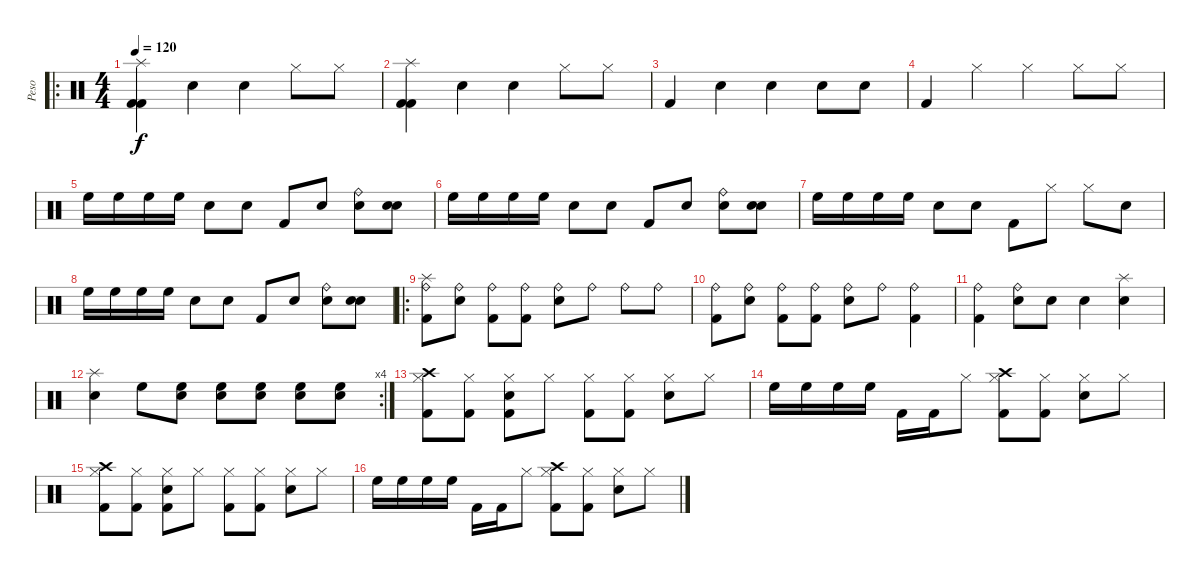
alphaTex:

\track ("Peso" "Peso") {instrument percussion}
\staff {score}
\articulation defaults
\ro
\ts (4 4)
\tempo 120
\clef neutral
\ks c
("Splash (hit)" "Kick (hit) 2" "Kick (hit) 2").4{dy f} "Snare (hit)"{x}.4 "Snare (hit)"{x}.4 "Hi-Hat (closed)".8 "Hi-Hat (closed)".8 |
("Splash (hit)" "Kick (hit) 2" "Kick (hit) 2").4 "Snare (hit)"{x}.4 "Snare (hit)"{x}.4 "Hi-Hat (closed)".8 "Hi-Hat (closed)"{x}.8 |
"Kick (hit) 2"{x}.4 "Snare (hit)"{x}.4 "Snare (hit)"{x}.4 "Snare (hit)"{x}.8 "Snare (hit)"{x}.8 |
"Kick (hit) 2"{x}.4 "Hi-Hat (closed)".4 "Hi-Hat (closed)".4 "Hi-Hat (closed)".8 "Hi-Hat (closed)".8 |
"High Floor Tom (hit)".16 "High Floor Tom (hit)".16 "High Floor Tom (hit)".16 "High Floor Tom (hit)".16 "Snare (hit) 2".8 "Snare (hit) 2".8 "Kick (hit) 2".8 "Snare (hit)"{x}.8 ("Ride (bell)" "Snare (hit)"{x}).8 ("Snare (hit) 2" "Snare (hit)"{x}).8 |
"High Floor Tom (hit)".16 "High Floor Tom (hit)".16 "High Floor Tom (hit)".16 "High Floor Tom (hit)".16 "Snare (hit) 2".8 "Snare (hit) 2".8 "Kick (hit) 2".8 "Snare (hit)"{x}.8 ("Ride (bell)" "Snare (hit)"{x}).8 ("Snare (hit) 2" "Snare (hit)"{x}).8 |
"High Floor Tom (hit)".16 "High Floor Tom (hit)".16 "High Floor Tom (hit)".16 "High Floor Tom (hit)".16 "Snare (hit) 2".8 "Snare (hit) 2".8 "Kick (hit) 2".8 "Hi-Hat (closed)".8 "Hi-Hat (closed)".8 "Snare (hit) 2".8 |
"High Floor Tom (hit)".16 "High Floor Tom (hit)".16 "High Floor Tom (hit)".16 "High Floor Tom (hit)".16 "Snare (hit) 2".8 "Snare (hit) 2".8 "Kick (hit) 2".8 "Snare (hit)"{x}.8 ("Ride (bell)" "Snare (hit)"{x}).8 ("Snare (hit) 2" "Snare (hit)"{x}).8 |
\ro
("Splash (hit)" "Ride (bell)" "Kick (hit) 2").8 ("Ride (bell)" "Snare (hit) 2").8 ("Ride (bell)" "Kick (hit) 2").8 ("Ride (bell)" "Kick (hit) 2").8 ("Ride (bell)" "Snare (hit) 2").8 "Ride (bell)".8 "Ride (bell)".8 "Ride (bell)".8 |
("Ride (bell)" "Kick (hit) 2").8 ("Ride (bell)" "Snare (hit) 2").8 ("Ride (bell)" "Kick (hit) 2").8 ("Ride (bell)" "Kick (hit) 2").8 ("Ride (bell)" "Snare (hit) 2").8 "Ride (bell)".8 ("Ride (bell)" "Kick (hit) 2").4 |
("Ride (bell)" "Kick (hit) 2").4 ("Ride (bell)" "Snare (hit) 2").8 "Snare (hit) 2".8 "Snare (hit) 2".4 ("Splash (hit)" "Snare (hit) 2").4 |
\rc 4
("Splash (hit)" "Snare (hit) 2").4 "High Floor Tom (hit)".8 ("High Floor Tom (hit)" "Snare (hit) 2").8 ("High Floor Tom (hit)" "Snare (hit) 2").8 ("High Floor Tom (hit)" "Snare (hit) 2").8 ("High Floor Tom (hit)" "Snare (hit) 2").8 ("High Floor Tom (hit)" "Snare (hit) 2").8 |
("Crash high (hit)" "Hi-Hat (closed)" "Kick (hit) 2").8 ("Hi-Hat (closed)" "Kick (hit) 2").8 ("Hi-Hat (closed)" "Snare (hit) 2" "Kick (hit) 2").8 "Hi-Hat (closed)".8 ("Hi-Hat (closed)" "Kick (hit) 2").8 ("Hi-Hat (closed)" "Kick (hit) 2").8 ("Hi-Hat (closed)" "Snare (hit) 2").8 "Hi-Hat (closed)".8 |
"High Floor Tom (hit)".16 "High Floor Tom (hit)".16 "High Floor Tom (hit)".16 "High Floor Tom (hit)".16 "Kick (hit) 2".16 "Kick (hit) 2".16 "Hi-Hat (closed)".8 ("Crash high (hit)" "Hi-Hat (closed)" "Kick (hit) 2").8 ("Hi-Hat (closed)" "Kick (hit) 2").8 ("Hi-Hat (closed)" "Snare (hit) 2").8 "Hi-Hat (closed)".8 |
("Crash high (hit)" "Hi-Hat (closed)" "Kick (hit) 2").8 ("Hi-Hat (closed)" "Kick (hit) 2").8 ("Hi-Hat (closed)" "Snare (hit) 2" "Kick (hit) 2").8 "Hi-Hat (closed)".8 ("Hi-Hat (closed)" "Kick (hit) 2").8 ("Hi-Hat (closed)" "Kick (hit) 2").8 ("Hi-Hat (closed)" "Snare (hit) 2").8 "Hi-Hat (closed)".8 |
"High Floor Tom (hit)".16 "High Floor Tom (hit)".16 "High Floor Tom (hit)".16 "High Floor Tom (hit)".16 "Kick (hit) 2".16 "Kick (hit) 2".16 "Hi-Hat (closed)".8 ("Crash high (hit)" "Hi-Hat (closed)" "Kick (hit) 2").8 ("Hi-Hat (closed)" "Kick (hit) 2").8 ("Hi-Hat (closed)" "Snare (hit) 2").8 "Hi-Hat (closed)".8
